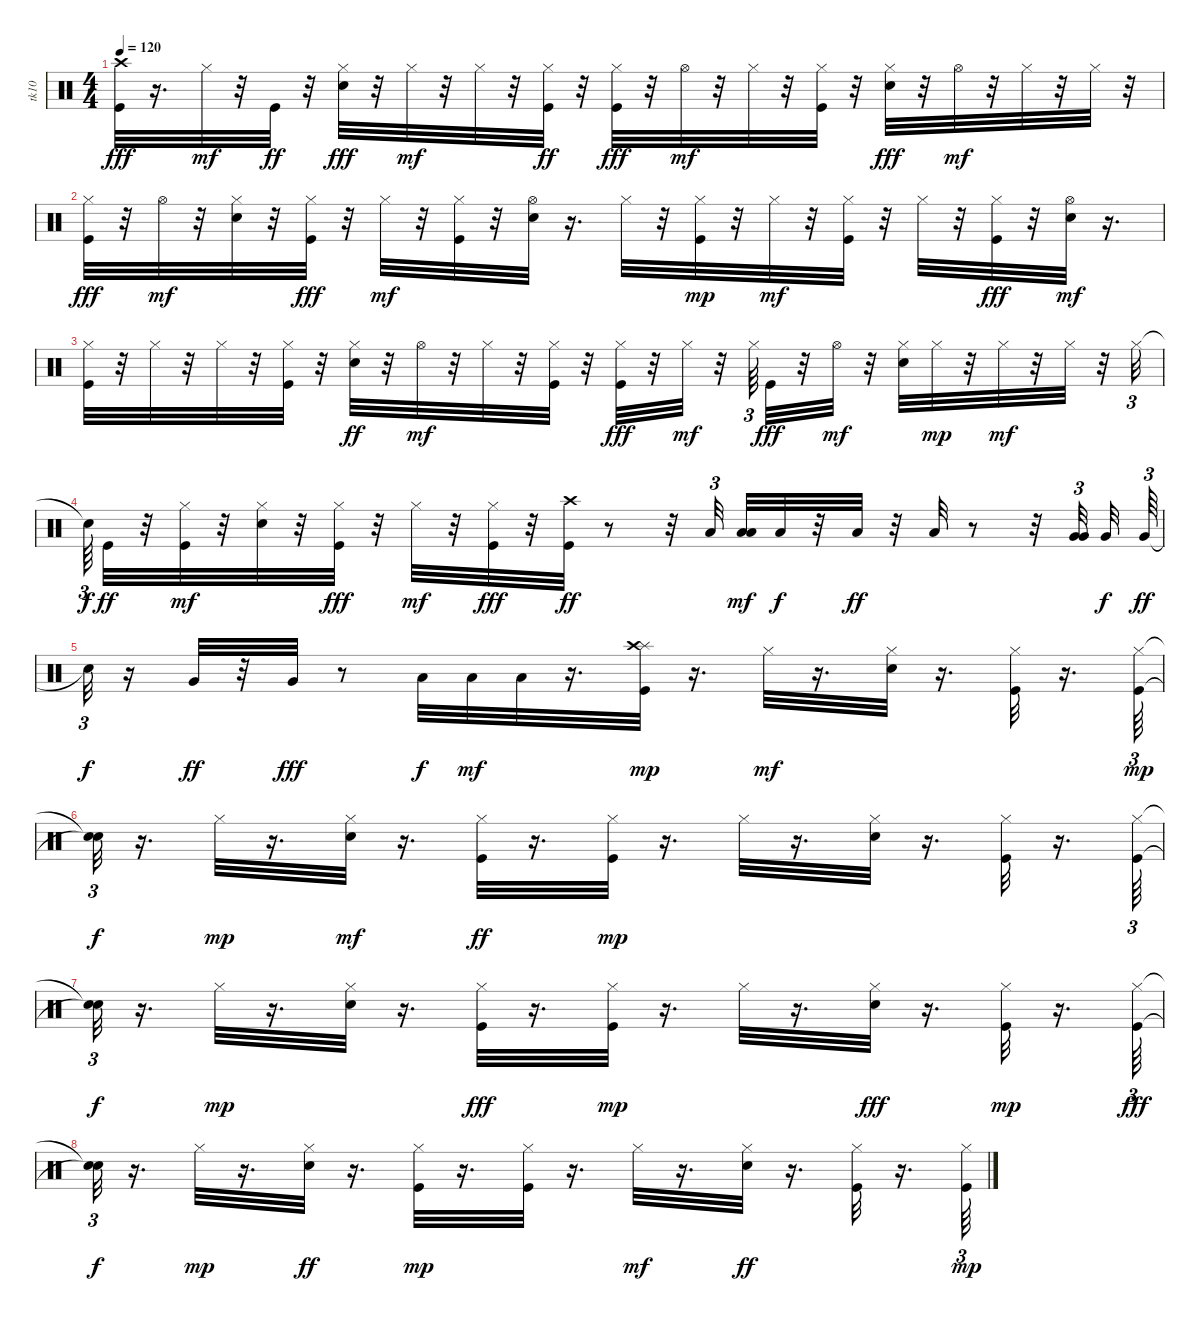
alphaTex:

\track ("tk10" "tk10") {instrument percussion}
\staff {score}
\articulation defaults
\ts (4 4)
\tempo 120
\clef neutral
\ks c
("Crash high (hit)" "Kick (hit)").32{dy fff} r.16{d} "Hi-Hat (closed)".32{dy mf} r.32 "Kick (hit)".32{dy ff} r.32 ("Snare (hit) 2" "Hi-Hat (closed)").32{dy fff} r.32 "Hi-Hat (closed)".32{dy mf} r.32 "Hi-Hat (closed)".32 r.32 ("Hi-Hat (closed)" "Kick (hit)").32{dy ff} r.32 ("Hi-Hat (closed)" "Kick (hit)").32{dy fff} r.32 "Hi-Hat (open)".32{dy mf} r.32 "Hi-Hat (closed)".32 r.32 ("Kick (hit)" "Hi-Hat (closed)").32 r.32 ("Hi-Hat (closed)" "Snare (hit) 2").32{dy fff} r.32 "Hi-Hat (open)".32{dy mf} r.32 "Hi-Hat (closed)".32 r.32 "Hi-Hat (closed)".32 r.32 |
("Hi-Hat (closed)" "Kick (hit)").32{dy fff} r.32 "Hi-Hat (open)".32{dy mf} r.32 ("Snare (hit) 2" "Hi-Hat (closed)").32 r.32 ("Hi-Hat (closed)" "Kick (hit)").32{dy fff} r.32 "Hi-Hat (closed)".32{dy mf} r.32 ("Kick (hit)" "Hi-Hat (closed)").32 r.32 ("Snare (hit) 2" "Hi-Hat (open)").32 r.16{d} "Hi-Hat (closed)".32 r.32 ("Kick (hit)" "Hi-Hat (closed)").32{dy mp} r.32 "Hi-Hat (closed)".32{dy mf} r.32 ("Kick (hit)" "Hi-Hat (closed)").32 r.32 "Hi-Hat (closed)".32 r.32 ("Hi-Hat (closed)" "Kick (hit)").32{dy fff} r.32 ("Snare (hit) 2" "Hi-Hat (open)").32{dy mf} r.16{d} |
("Kick (hit)" "Hi-Hat (closed)").32 r.32 "Hi-Hat (closed)".32 r.32 "Hi-Hat (closed)".32 r.32 ("Kick (hit)" "Hi-Hat (closed)").32 r.32 ("Snare (hit) 2" "Hi-Hat (closed)").32{dy ff} r.32 "Hi-Hat (open)".32{dy mf} r.32 "Hi-Hat (closed)".32 r.32 ("Hi-Hat (closed)" "Kick (hit)").32 r.32 ("Hi-Hat (closed)" "Kick (hit)").32{dy fff} r.32 "Hi-Hat (closed)".32{dy mf} r.32 "Hi-Hat (closed)".64{tu (3 2)} "Kick (hit)".32{dy fff} r.32 "Hi-Hat (open)".32{dy mf} r.32 ("Snare (hit) 2" "Hi-Hat (closed)").32 "Hi-Hat (closed)".32{dy mp} r.32 "Hi-Hat (closed)".32{dy mf} r.32 "Hi-Hat (closed)".32 r.32 "Hi-Hat (closed)".32{tu (3 2)} |
"Snare (hit)"{t}.64{tu (3 2) dy f} "Kick (hit)".32{dy ff} r.32 ("Kick (hit)" "Hi-Hat (closed)").32{dy mf} r.32 ("Snare (hit) 2" "Hi-Hat (closed)").32 r.32 ("Hi-Hat (closed)" "Kick (hit)").32{dy fff} r.32 "Hi-Hat (closed)".32{dy mf} r.32 ("Hi-Hat (closed)" "Kick (hit)").32{dy fff} r.32 ("Kick (hit)" "Crash high (hit)").32{dy ff} r.8 r.32 "Low Tom (hit)".32{tu (3 2) beam splitsecondary} ("Low Tom (hit)" "Low Tom (hit)").32{dy mf} "Low Tom (hit)".32{dy f} r.32 "Low Tom (hit)".32{dy ff} r.32 "Low Tom (hit)".32 r.8 r.32 ("Very Low Tom (hit)" "Very Low Tom (hit)").32{tu (3 2) beam splitsecondary} "Very Low Tom (hit)".32{dy f} "Very Low Tom (hit)".64{tu (3 2) dy ff} |
"Snare (hit)"{t}.32{tu (3 2) dy f} r.16 "Very Low Tom (hit)".32{dy ff} r.32 "Very Low Tom (hit)".32{dy fff} r.8 "Low Floor Tom (hit)".32{dy f} "Low Floor Tom (hit)".32{dy mf} "Low Floor Tom (hit)".32 r.16{d} ("Kick (hit)" "Splash (hit)" "Crash high (hit)").32{dy mp} r.16{d} "Hi-Hat (closed)".32{dy mf} r.16{d} ("Snare (hit) 2" "Hi-Hat (closed)").32 r.16{d} ("Kick (hit)" "Hi-Hat (closed)").32 r.16{d} ("Kick (hit)" "Hi-Hat (closed)").64{tu (3 2) dy mp} |
("Snare (hit)"{t} "Snare (hit)"{t}).32{tu (3 2) dy f} r.16{d} "Hi-Hat (closed)".32{dy mp} r.16{d} ("Snare (hit) 2" "Hi-Hat (closed)").32{dy mf} r.16{d} ("Hi-Hat (closed)" "Kick (hit)").32{dy ff} r.16{d} ("Kick (hit)" "Hi-Hat (closed)").32{dy mp} r.16{d} "Hi-Hat (closed)".32 r.16{d} ("Snare (hit) 2" "Hi-Hat (closed)").32 r.16{d} ("Kick (hit)" "Hi-Hat (closed)").32 r.16{d} ("Kick (hit)" "Hi-Hat (closed)").64{tu (3 2)} |
("Snare (hit)"{t} "Snare (hit)"{t}).32{tu (3 2) dy f} r.16{d} "Hi-Hat (closed)".32{dy mp} r.16{d} ("Snare (hit) 2" "Hi-Hat (closed)").32 r.16{d} ("Hi-Hat (closed)" "Kick (hit)").32{dy fff} r.16{d} ("Kick (hit)" "Hi-Hat (closed)").32{dy mp} r.16{d} "Hi-Hat (closed)".32 r.16{d} ("Hi-Hat (closed)" "Snare (hit) 2").32{dy fff} r.16{d} ("Kick (hit)" "Hi-Hat (closed)").32{dy mp} r.16{d} ("Hi-Hat (closed)" "Kick (hit)").64{tu (3 2) dy fff} |
("Snare (hit)"{t} "Snare (hit)"{t}).32{tu (3 2) dy f} r.16{d} "Hi-Hat (closed)".32{dy mp} r.16{d} ("Hi-Hat (closed)" "Snare (hit) 2").32{dy ff} r.16{d} ("Kick (hit)" "Hi-Hat (closed)").32{dy mp} r.16{d} ("Kick (hit)" "Hi-Hat (closed)").32 r.16{d} "Hi-Hat (closed)".32{dy mf} r.16{d} ("Hi-Hat (closed)" "Snare (hit) 2").32{dy ff} r.16{d} ("Hi-Hat (closed)" "Kick (hit)").32 r.16{d} ("Kick (hit)" "Hi-Hat (closed)").64{tu (3 2) dy mp}
